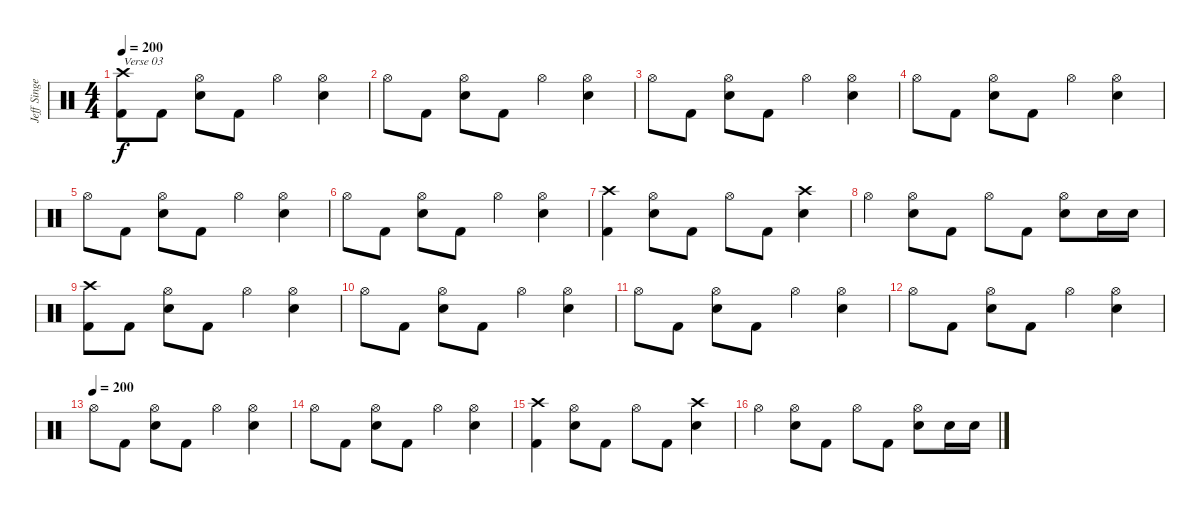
\track ("Jeff Singer" "Jeff Singe") {instrument percussion}
\staff {score}
\articulation defaults
\ts (4 4)
\tempo 200
\clef neutral
\ks c
("Crash high (hit)" "Kick (hit) 2").8{txt "Verse 03" dy f} "Kick (hit) 2".8 ("Hi-Hat (open)" "Snare (hit) 2").8 "Kick (hit) 2".8 "Hi-Hat (open)".4 ("Hi-Hat (open)" "Snare (hit) 2").4 |
"Hi-Hat (open)".8 "Kick (hit) 2".8 ("Hi-Hat (open)" "Snare (hit) 2").8 "Kick (hit) 2".8 "Hi-Hat (open)".4 ("Hi-Hat (open)" "Snare (hit) 2").4 |
"Hi-Hat (open)".8 "Kick (hit) 2".8 ("Hi-Hat (open)" "Snare (hit) 2").8 "Kick (hit) 2".8 "Hi-Hat (open)".4 ("Hi-Hat (open)" "Snare (hit) 2").4 |
"Hi-Hat (open)".8 "Kick (hit) 2".8 ("Hi-Hat (open)" "Snare (hit) 2").8 "Kick (hit) 2".8 "Hi-Hat (open)".4 ("Hi-Hat (open)" "Snare (hit) 2").4 |
"Hi-Hat (open)".8 "Kick (hit) 2".8 ("Hi-Hat (open)" "Snare (hit) 2").8 "Kick (hit) 2".8 "Hi-Hat (open)".4 ("Hi-Hat (open)" "Snare (hit) 2").4 |
"Hi-Hat (open)".8 "Kick (hit) 2".8 ("Hi-Hat (open)" "Snare (hit) 2").8 "Kick (hit) 2".8 "Hi-Hat (open)".4 ("Hi-Hat (open)" "Snare (hit) 2").4 |
("Crash high (hit)" "Kick (hit) 2").4 ("Hi-Hat (open)" "Snare (hit) 2").8 "Kick (hit) 2".8 "Hi-Hat (open)".8 "Kick (hit) 2".8 ("Crash high (hit)" "Snare (hit) 2").4 |
"Hi-Hat (open)".4 ("Hi-Hat (open)" "Snare (hit) 2").8 "Kick (hit) 2".8 "Hi-Hat (open)".8 "Kick (hit) 2".8 ("Hi-Hat (open)" "Snare (hit) 2").8 "Snare (hit) 2".16 "Snare (hit) 2".16 |
("Crash high (hit)" "Kick (hit) 2").8 "Kick (hit) 2".8 ("Hi-Hat (open)" "Snare (hit) 2").8 "Kick (hit) 2".8 "Hi-Hat (open)".4 ("Hi-Hat (open)" "Snare (hit) 2").4 |
"Hi-Hat (open)".8 "Kick (hit) 2".8 ("Hi-Hat (open)" "Snare (hit) 2").8 "Kick (hit) 2".8 "Hi-Hat (open)".4 ("Hi-Hat (open)" "Snare (hit) 2").4 |
"Hi-Hat (open)".8 "Kick (hit) 2".8 ("Hi-Hat (open)" "Snare (hit) 2").8 "Kick (hit) 2".8 "Hi-Hat (open)".4 ("Hi-Hat (open)" "Snare (hit) 2").4 |
"Hi-Hat (open)".8 "Kick (hit) 2".8 ("Hi-Hat (open)" "Snare (hit) 2").8 "Kick (hit) 2".8 "Hi-Hat (open)".4 ("Hi-Hat (open)" "Snare (hit) 2").4 |
\tempo (200)
"Hi-Hat (open)".8 "Kick (hit) 2".8 ("Hi-Hat (open)" "Snare (hit) 2").8 "Kick (hit) 2".8 "Hi-Hat (open)".4 ("Hi-Hat (open)" "Snare (hit) 2").4 |
"Hi-Hat (open)".8 "Kick (hit) 2".8 ("Hi-Hat (open)" "Snare (hit) 2").8 "Kick (hit) 2".8 "Hi-Hat (open)".4 ("Hi-Hat (open)" "Snare (hit) 2").4 |
("Crash high (hit)" "Kick (hit) 2").4 ("Hi-Hat (open)" "Snare (hit) 2").8 "Kick (hit) 2".8 "Hi-Hat (open)".8 "Kick (hit) 2".8 ("Crash high (hit)" "Snare (hit) 2").4 |
"Hi-Hat (open)".4 ("Hi-Hat (open)" "Snare (hit) 2").8 "Kick (hit) 2".8 "Hi-Hat (open)".8 "Kick (hit) 2".8 ("Hi-Hat (open)" "Snare (hit) 2").8 "Snare (hit) 2".16 "Snare (hit) 2".16
